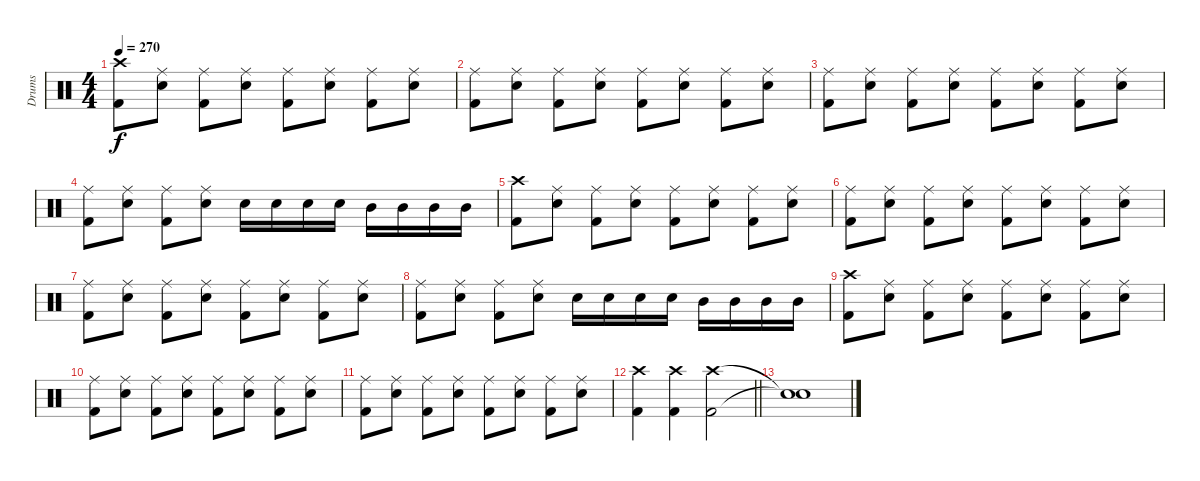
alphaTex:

\track ("Drums" "Drums") {instrument percussion}
\staff {score}
\articulation defaults
\ts (4 4)
\tempo 270
\clef neutral
\ks c
("Crash high (hit)" "Kick (hit) 2").8{dy f} ("Ride (middle)" "Snare (hit) 2").8 ("Ride (middle)" "Kick (hit) 2").8 ("Ride (middle)" "Snare (hit) 2").8 ("Ride (middle)" "Kick (hit) 2").8 ("Ride (middle)" "Snare (hit) 2").8 ("Ride (middle)" "Kick (hit) 2").8 ("Ride (middle)" "Snare (hit) 2").8 |
("Ride (middle)" "Kick (hit) 2").8 ("Ride (middle)" "Snare (hit) 2").8 ("Ride (middle)" "Kick (hit) 2").8 ("Ride (middle)" "Snare (hit) 2").8 ("Ride (middle)" "Kick (hit) 2").8 ("Ride (middle)" "Snare (hit) 2").8 ("Ride (middle)" "Kick (hit) 2").8 ("Ride (middle)" "Snare (hit) 2").8 |
("Ride (middle)" "Kick (hit) 2").8 ("Ride (middle)" "Snare (hit) 2").8 ("Ride (middle)" "Kick (hit) 2").8 ("Ride (middle)" "Snare (hit) 2").8 ("Ride (middle)" "Kick (hit) 2").8 ("Ride (middle)" "Snare (hit) 2").8 ("Ride (middle)" "Kick (hit) 2").8 ("Ride (middle)" "Snare (hit) 2").8 |
("Ride (middle)" "Kick (hit) 2").8 ("Ride (middle)" "Snare (hit) 2").8 ("Ride (middle)" "Kick (hit) 2").8 ("Ride (middle)" "Snare (hit) 2").8 "Snare (hit) 2".16 "Snare (hit) 2".16 "Snare (hit) 2".16 "Snare (hit) 2".16 "Mid Tom (hit)".16 "Mid Tom (hit)".16 "Mid Tom (hit)".16 "Mid Tom (hit)".16 |
("Crash high (hit)" "Kick (hit) 2").8 ("Ride (middle)" "Snare (hit) 2").8 ("Ride (middle)" "Kick (hit) 2").8 ("Ride (middle)" "Snare (hit) 2").8 ("Ride (middle)" "Kick (hit) 2").8 ("Ride (middle)" "Snare (hit) 2").8 ("Ride (middle)" "Kick (hit) 2").8 ("Ride (middle)" "Snare (hit) 2").8 |
("Ride (middle)" "Kick (hit) 2").8 ("Ride (middle)" "Snare (hit) 2").8 ("Ride (middle)" "Kick (hit) 2").8 ("Ride (middle)" "Snare (hit) 2").8 ("Ride (middle)" "Kick (hit) 2").8 ("Ride (middle)" "Snare (hit) 2").8 ("Ride (middle)" "Kick (hit) 2").8 ("Ride (middle)" "Snare (hit) 2").8 |
("Ride (middle)" "Kick (hit) 2").8 ("Ride (middle)" "Snare (hit) 2").8 ("Ride (middle)" "Kick (hit) 2").8 ("Ride (middle)" "Snare (hit) 2").8 ("Ride (middle)" "Kick (hit) 2").8 ("Ride (middle)" "Snare (hit) 2").8 ("Ride (middle)" "Kick (hit) 2").8 ("Ride (middle)" "Snare (hit) 2").8 |
("Ride (middle)" "Kick (hit) 2").8 ("Ride (middle)" "Snare (hit) 2").8 ("Ride (middle)" "Kick (hit) 2").8 ("Ride (middle)" "Snare (hit) 2").8 "Snare (hit) 2".16 "Snare (hit) 2".16 "Snare (hit) 2".16 "Snare (hit) 2".16 "Mid Tom (hit)".16 "Mid Tom (hit)".16 "Mid Tom (hit)".16 "Mid Tom (hit)".16 |
("Crash high (hit)" "Kick (hit) 2").8 ("Ride (middle)" "Snare (hit) 2").8 ("Ride (middle)" "Kick (hit) 2").8 ("Ride (middle)" "Snare (hit) 2").8 ("Ride (middle)" "Kick (hit) 2").8 ("Ride (middle)" "Snare (hit) 2").8 ("Ride (middle)" "Kick (hit) 2").8 ("Ride (middle)" "Snare (hit) 2").8 |
("Ride (middle)" "Kick (hit) 2").8 ("Ride (middle)" "Snare (hit) 2").8 ("Ride (middle)" "Kick (hit) 2").8 ("Ride (middle)" "Snare (hit) 2").8 ("Ride (middle)" "Kick (hit) 2").8 ("Ride (middle)" "Snare (hit) 2").8 ("Ride (middle)" "Kick (hit) 2").8 ("Ride (middle)" "Snare (hit) 2").8 |
("Ride (middle)" "Kick (hit) 2").8 ("Ride (middle)" "Snare (hit) 2").8 ("Ride (middle)" "Kick (hit) 2").8 ("Ride (middle)" "Snare (hit) 2").8 ("Ride (middle)" "Kick (hit) 2").8 ("Ride (middle)" "Snare (hit) 2").8 ("Ride (middle)" "Kick (hit) 2").8 ("Ride (middle)" "Snare (hit) 2").8 |
\barLineRight lightlight
("Crash high (hit)" "Kick (hit) 2").4 ("Crash high (hit)" "Kick (hit) 2").4 ("Crash high (hit)" "Kick (hit) 2").2 |
("Snare (hit)"{t} "Snare (hit)"{t}).1
